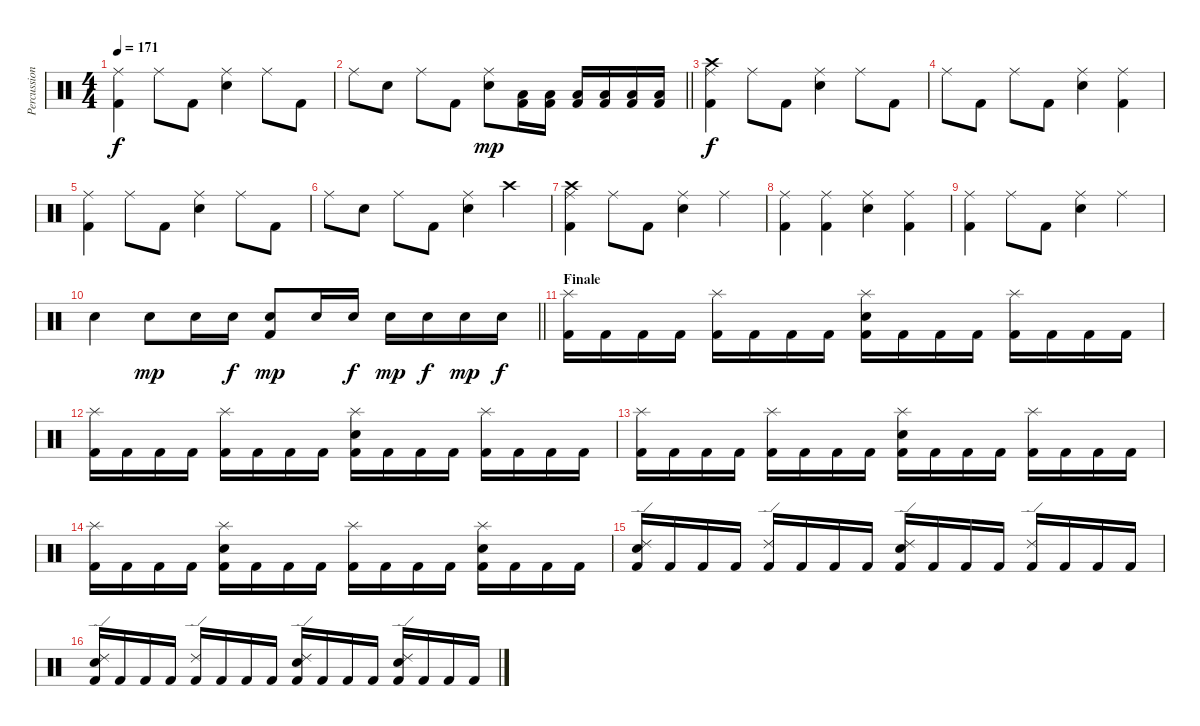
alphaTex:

\track ("Percussion" "Percussion") {instrument percussion}
\staff {score}
\articulation defaults
\ts (4 4)
\tempo 171
\clef neutral
\ks c
("Ride (middle)" "Kick (hit) 2").4{dy f} "Ride (middle)".8 "Kick (hit) 2".8 ("Ride (middle)" "Snare (hit) 2").4 "Ride (middle)".8 "Kick (hit) 2".8 |
\barLineRight lightlight "Ride (middle)".8 "Snare (hit) 2".8 "Ride (middle)".8 "Kick (hit) 2".8
("Ride (middle)" "Snare (hit) 2").8{dy mp} ("Low Floor Tom (hit)" "Kick (hit) 2").16 ("Low Floor Tom (hit)" "Kick (hit) 2").16 ("Low Floor Tom (hit)" "Kick (hit) 2").16 ("Low Floor Tom (hit)" "Kick (hit) 2").16 ("Low Floor Tom (hit)" "Kick (hit) 2").16 ("Low Floor Tom (hit)" "Kick (hit) 2").16 |
("Ride (middle)" "Crash high (hit)" "Kick (hit) 2").4{dy f} "Ride (middle)".8 "Kick (hit) 2".8 ("Ride (middle)" "Snare (hit) 2").4 "Ride (middle)".8 "Kick (hit) 2".8 |
"Ride (middle)".8 "Kick (hit) 2".8 "Ride (middle)".8 "Kick (hit) 2".8 ("Ride (middle)" "Snare (hit) 2").4 ("Ride (middle)" "Kick (hit) 2").4 |
("Ride (middle)" "Kick (hit) 2").4 "Ride (middle)".8 "Kick (hit) 2".8 ("Ride (middle)" "Snare (hit) 2").4 "Ride (middle)".8 "Kick (hit) 2".8 |
"Ride (middle)".8 "Snare (hit) 2".8 "Ride (middle)".8 "Kick (hit) 2".8 ("Ride (middle)" "Snare (hit) 2").4 "Crash high (hit)".4 |
("Ride (middle)" "Crash high (hit)" "Kick (hit) 2").4 "Ride (middle)".8 "Kick (hit) 2".8 ("Ride (middle)" "Snare (hit) 2").4 "Ride (middle)".4 |
("Ride (middle)" "Kick (hit) 2").4 ("Ride (middle)" "Kick (hit) 2").4 ("Ride (middle)" "Snare (hit) 2").4 ("Ride (middle)" "Kick (hit) 2").4 |
("Ride (middle)" "Kick (hit) 2").4 "Ride (middle)".8 "Kick (hit) 2".8 ("Ride (middle)" "Snare (hit) 2").4 "Ride (middle)".4 |
\barLineRight lightlight "Snare (hit) 2".4 "Snare (hit) 2".8{dy mp} "Snare (hit) 2".16 "Snare (hit) 2".16{dy f}
("Snare (hit) 2" "Kick (hit) 2").8{dy mp} "Snare (hit) 2".16 "Snare (hit) 2".16{dy f} "Snare (hit) 2".16{dy mp} "Snare (hit) 2".16{dy f} "Snare (hit) 2".16{dy mp} "Snare (hit) 2".16{dy f} |
\section ("" "Finale")
("Splash (hit)" "Kick (hit) 2").16 "Kick (hit) 2".16 "Kick (hit) 2".16 "Kick (hit) 2".16 ("Splash (hit)" "Kick (hit) 2").16 "Kick (hit) 2".16 "Kick (hit) 2".16 "Kick (hit) 2".16 ("Splash (hit)" "Snare (hit) 2" "Kick (hit) 2").16 "Kick (hit) 2".16 "Kick (hit) 2".16 "Kick (hit) 2".16 ("Splash (hit)" "Kick (hit) 2").16 "Kick (hit) 2".16 "Kick (hit) 2".16 "Kick (hit) 2".16 |
("Splash (hit)" "Kick (hit) 2").16 "Kick (hit) 2".16 "Kick (hit) 2".16 "Kick (hit) 2".16 ("Splash (hit)" "Kick (hit) 2").16 "Kick (hit) 2".16 "Kick (hit) 2".16 "Kick (hit) 2".16 ("Splash (hit)" "Snare (hit) 2" "Kick (hit) 2").16 "Kick (hit) 2".16 "Kick (hit) 2".16 "Kick (hit) 2".16 ("Splash (hit)" "Kick (hit) 2").16 "Kick (hit) 2".16 "Kick (hit) 2".16 "Kick (hit) 2".16 |
("Splash (hit)" "Kick (hit) 2").16 "Kick (hit) 2".16 "Kick (hit) 2".16 "Kick (hit) 2".16 ("Splash (hit)" "Kick (hit) 2").16 "Kick (hit) 2".16 "Kick (hit) 2".16 "Kick (hit) 2".16 ("Splash (hit)" "Snare (hit) 2" "Kick (hit) 2").16 "Kick (hit) 2".16 "Kick (hit) 2".16 "Kick (hit) 2".16 ("Splash (hit)" "Kick (hit) 2").16 "Kick (hit) 2".16 "Kick (hit) 2".16 "Kick (hit) 2".16 |
("Splash (hit)" "Kick (hit) 2").16 "Kick (hit) 2".16 "Kick (hit) 2".16 "Kick (hit) 2".16 ("Splash (hit)" "Snare (hit) 2" "Kick (hit) 2").16 "Kick (hit) 2".16 "Kick (hit) 2".16 "Kick (hit) 2".16 ("Splash (hit)" "Kick (hit) 2").16 "Kick (hit) 2".16 "Kick (hit) 2".16 "Kick (hit) 2".16 ("Splash (hit)" "Snare (hit) 2" "Kick (hit) 2").16 "Kick (hit) 2".16 "Kick (hit) 2".16 "Kick (hit) 2".16 |
("Ride (edge) 2" "Snare (hit) 2" "Kick (hit) 2").16 "Kick (hit) 2".16 "Kick (hit) 2".16 "Kick (hit) 2".16 ("Ride (edge) 2" "Kick (hit) 2").16 "Kick (hit) 2".16 "Kick (hit) 2".16 "Kick (hit) 2".16 ("Ride (edge) 2" "Snare (hit) 2" "Kick (hit) 2").16 "Kick (hit) 2".16 "Kick (hit) 2".16 "Kick (hit) 2".16 ("Ride (edge) 2" "Kick (hit) 2").16 "Kick (hit) 2".16 "Kick (hit) 2".16 "Kick (hit) 2".16 |
("Ride (edge) 2" "Snare (hit) 2" "Kick (hit) 2").16 "Kick (hit) 2".16 "Kick (hit) 2".16 "Kick (hit) 2".16 ("Ride (edge) 2" "Kick (hit) 2").16 "Kick (hit) 2".16 "Kick (hit) 2".16 "Kick (hit) 2".16 ("Ride (edge) 2" "Snare (hit) 2" "Kick (hit) 2").16 "Kick (hit) 2".16 "Kick (hit) 2".16 "Kick (hit) 2".16 ("Ride (edge) 2" "Snare (hit) 2" "Kick (hit) 2").16 "Kick (hit) 2".16 "Kick (hit) 2".16 "Kick (hit) 2".16
